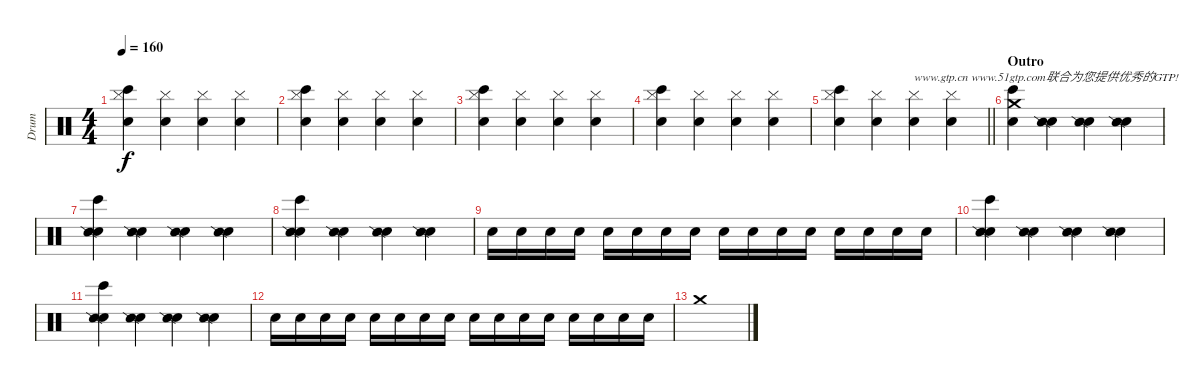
\track ("Drum" "Drum") {instrument percussion}
\staff {score}
\articulation defaults
\ts (4 4)
\tempo 160
\clef neutral
\ks c
("Electric Snare (hit)" "Bongo High (hit)" "Cymbal (hit)").4{dy f} ("Electric Snare (hit)" "Cymbal (hit)").4 ("Electric Snare (hit)" "Cymbal (hit)").4 ("Electric Snare (hit)" "Cymbal (hit)").4 |
("Electric Snare (hit)" "Bongo High (hit)" "Cymbal (hit)").4 ("Electric Snare (hit)" "Cymbal (hit)").4 ("Electric Snare (hit)" "Cymbal (hit)").4 ("Electric Snare (hit)" "Cymbal (hit)").4 |
("Electric Snare (hit)" "Bongo High (hit)" "Cymbal (hit)").4 ("Electric Snare (hit)" "Cymbal (hit)").4 ("Electric Snare (hit)" "Cymbal (hit)").4 ("Electric Snare (hit)" "Cymbal (hit)").4 |
("Electric Snare (hit)" "Bongo High (hit)" "Cymbal (hit)").4 ("Electric Snare (hit)" "Cymbal (hit)").4 ("Electric Snare (hit)" "Cymbal (hit)").4 ("Electric Snare (hit)" "Cymbal (hit)").4 |
\barLineRight lightlight
("Electric Snare (hit)" "Bongo High (hit)" "Cymbal (hit)").4 ("Electric Snare (hit)" "Cymbal (hit)").4 ("Electric Snare (hit)" "Cymbal (hit)").4{txt "www.gtp.cn www.51gtp.com联合为您提供优秀的GTP!"} ("Electric Snare (hit)" "Cymbal (hit)").4 |
\section ("" "Outro")
("Electric Snare (hit)" "Bongo High (hit)" "Crash medium (hit)").4 ("Electric Snare (hit)" "Snare (side stick) 2").4 ("Electric Snare (hit)" "Snare (side stick) 2").4 ("Electric Snare (hit)" "Snare (side stick) 2").4 |
("Electric Snare (hit)" "Bongo High (hit)" "Snare (side stick) 2").4 ("Electric Snare (hit)" "Snare (side stick) 2").4 ("Electric Snare (hit)" "Snare (side stick) 2").4 ("Electric Snare (hit)" "Snare (side stick) 2").4 |
("Electric Snare (hit)" "Bongo High (hit)" "Snare (side stick) 2").4 ("Electric Snare (hit)" "Snare (side stick) 2").4 ("Electric Snare (hit)" "Snare (side stick) 2").4 ("Electric Snare (hit)" "Snare (side stick) 2").4 |
"Electric Snare (hit)".16 "Electric Snare (hit)".16 "Electric Snare (hit)".16 "Electric Snare (hit)".16 "Electric Snare (hit)".16 "Electric Snare (hit)".16 "Electric Snare (hit)".16 "Electric Snare (hit)".16 "Electric Snare (hit)".16 "Electric Snare (hit)".16 "Electric Snare (hit)".16 "Electric Snare (hit)".16 "Electric Snare (hit)".16 "Electric Snare (hit)".16 "Electric Snare (hit)".16 "Electric Snare (hit)".16 |
("Electric Snare (hit)" "Bongo High (hit)" "Snare (side stick) 2").4 ("Electric Snare (hit)" "Snare (side stick) 2").4 ("Electric Snare (hit)" "Snare (side stick) 2").4 ("Electric Snare (hit)" "Snare (side stick) 2").4 |
("Electric Snare (hit)" "Bongo High (hit)" "Snare (side stick) 2").4 ("Electric Snare (hit)" "Snare (side stick) 2").4 ("Electric Snare (hit)" "Snare (side stick) 2").4 ("Electric Snare (hit)" "Snare (side stick) 2").4 |
"Electric Snare (hit)".16 "Electric Snare (hit)".16 "Electric Snare (hit)".16 "Electric Snare (hit)".16 "Electric Snare (hit)".16 "Electric Snare (hit)".16 "Electric Snare (hit)".16 "Electric Snare (hit)".16 "Electric Snare (hit)".16 "Electric Snare (hit)".16 "Electric Snare (hit)".16 "Electric Snare (hit)".16 "Electric Snare (hit)".16 "Electric Snare (hit)".16 "Electric Snare (hit)".16 "Electric Snare (hit)".16 |
"Crash medium (hit)".1
